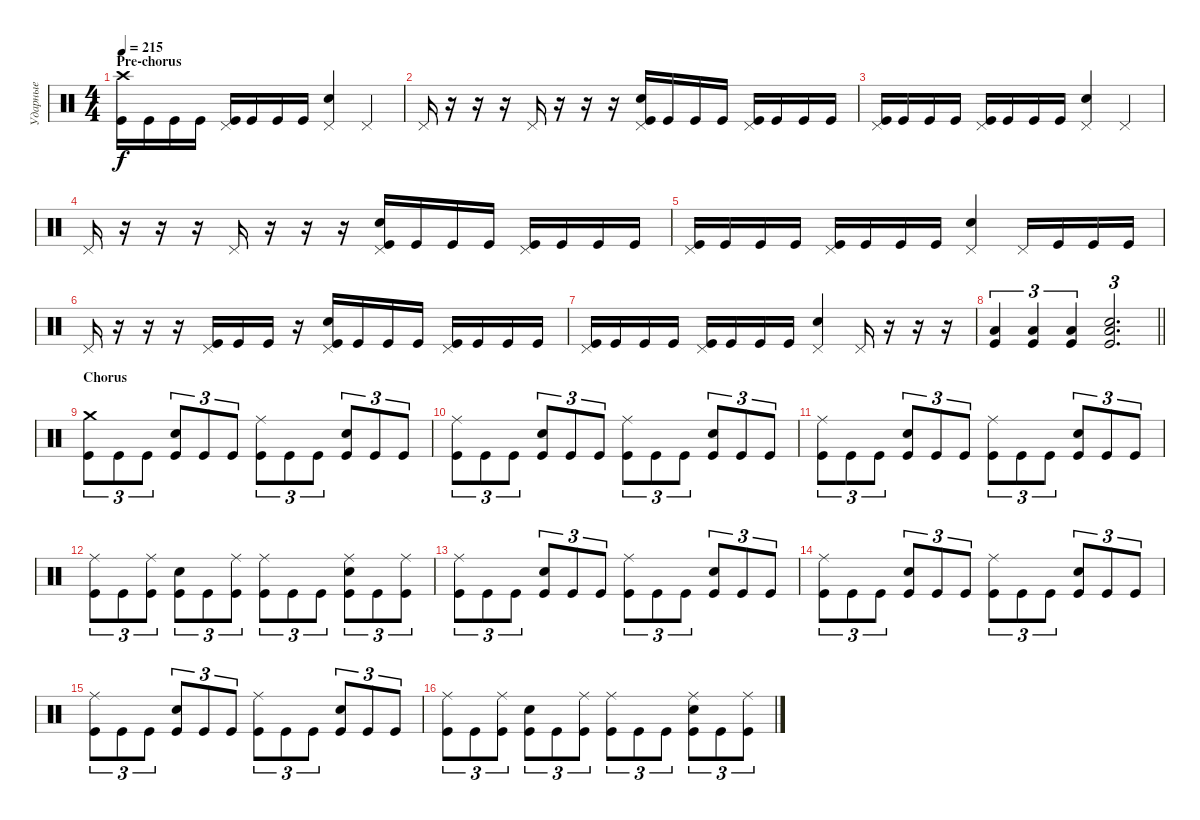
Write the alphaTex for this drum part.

\track ("Ударные" "Ударные") {instrument percussion}
\staff {score}
\articulation defaults
\ts (4 4)
\section ("" "Pre-chorus")
\tempo 215
\clef neutral
\ks c
("Crash high (hit)" "Kick (hit)").16{dy f} "Kick (hit)".16 "Kick (hit)".16 "Kick (hit)".16 ("Pedal Hi-Hat (hit)" "Kick (hit)").16 "Kick (hit)".16 "Kick (hit)".16 "Kick (hit)".16 ("Pedal Hi-Hat (hit)" "Electric Snare (hit)").4 "Pedal Hi-Hat (hit)".4 |
"Pedal Hi-Hat (hit)".16 r.16 r.16 r.16 "Pedal Hi-Hat (hit)".16 r.16 r.16 r.16 ("Pedal Hi-Hat (hit)" "Electric Snare (hit)" "Kick (hit)").16 "Kick (hit)".16 "Kick (hit)".16 "Kick (hit)".16 ("Pedal Hi-Hat (hit)" "Kick (hit)").16 "Kick (hit)".16 "Kick (hit)".16 "Kick (hit)".16 |
("Pedal Hi-Hat (hit)" "Kick (hit)").16 "Kick (hit)".16 "Kick (hit)".16 "Kick (hit)".16 ("Pedal Hi-Hat (hit)" "Kick (hit)").16 "Kick (hit)".16 "Kick (hit)".16 "Kick (hit)".16 ("Pedal Hi-Hat (hit)" "Electric Snare (hit)").4 "Pedal Hi-Hat (hit)".4 |
"Pedal Hi-Hat (hit)".16 r.16 r.16 r.16 "Pedal Hi-Hat (hit)".16 r.16 r.16 r.16 ("Pedal Hi-Hat (hit)" "Electric Snare (hit)" "Kick (hit)").16 "Kick (hit)".16 "Kick (hit)".16 "Kick (hit)".16 ("Pedal Hi-Hat (hit)" "Kick (hit)").16 "Kick (hit)".16 "Kick (hit)".16 "Kick (hit)".16 |
("Pedal Hi-Hat (hit)" "Kick (hit)").16 "Kick (hit)".16 "Kick (hit)".16 "Kick (hit)".16 ("Pedal Hi-Hat (hit)" "Kick (hit)").16 "Kick (hit)".16 "Kick (hit)".16 "Kick (hit)".16 ("Pedal Hi-Hat (hit)" "Electric Snare (hit)").4 "Pedal Hi-Hat (hit)".16 "Kick (hit)".16 "Kick (hit)".16 "Kick (hit)".16 |
"Pedal Hi-Hat (hit)".16 r.16 r.16 r.16 ("Pedal Hi-Hat (hit)" "Kick (hit)").16 "Kick (hit)".16 "Kick (hit)".16 r.16 ("Pedal Hi-Hat (hit)" "Electric Snare (hit)" "Kick (hit)").16 "Kick (hit)".16 "Kick (hit)".16 "Kick (hit)".16 ("Pedal Hi-Hat (hit)" "Kick (hit)").16 "Kick (hit)".16 "Kick (hit)".16 "Kick (hit)".16 |
("Pedal Hi-Hat (hit)" "Kick (hit)").16 "Kick (hit)".16 "Kick (hit)".16 "Kick (hit)".16 ("Pedal Hi-Hat (hit)" "Kick (hit)").16 "Kick (hit)".16 "Kick (hit)".16 "Kick (hit)".16 ("Pedal Hi-Hat (hit)" "Electric Snare (hit)").4 "Pedal Hi-Hat (hit)".16 r.16 r.16 r.16 |
\barLineRight lightlight
("Low Floor Tom (hit)" "Kick (hit)").4{tu (3 2)} ("Low Floor Tom (hit)" "Kick (hit)").4{tu (3 2)} ("Low Floor Tom (hit)" "Kick (hit)").4{tu (3 2)} ("Low Floor Tom (hit)" "Electric Snare (hit)" "Kick (hit)").2{d tu (3 2)} |
\section ("" "Chorus")
("Crash medium (hit)" "Kick (hit)").8{tu (3 2)} "Kick (hit)".8{tu (3 2)} "Kick (hit)".8{tu (3 2)} ("Electric Snare (hit)" "Kick (hit)").8{tu (3 2)} "Kick (hit)".8{tu (3 2)} "Kick (hit)".8{tu (3 2)} ("Ride (middle)" "Kick (hit)").8{tu (3 2)} "Kick (hit)".8{tu (3 2)} "Kick (hit)".8{tu (3 2)} ("Electric Snare (hit)" "Kick (hit)").8{tu (3 2)} "Kick (hit)".8{tu (3 2)} "Kick (hit)".8{tu (3 2)} |
("Ride (middle)" "Kick (hit)").8{tu (3 2)} "Kick (hit)".8{tu (3 2)} "Kick (hit)".8{tu (3 2)} ("Electric Snare (hit)" "Kick (hit)").8{tu (3 2)} "Kick (hit)".8{tu (3 2)} "Kick (hit)".8{tu (3 2)} ("Ride (middle)" "Kick (hit)").8{tu (3 2)} "Kick (hit)".8{tu (3 2)} "Kick (hit)".8{tu (3 2)} ("Electric Snare (hit)" "Kick (hit)").8{tu (3 2)} "Kick (hit)".8{tu (3 2)} "Kick (hit)".8{tu (3 2)} |
("Ride (middle)" "Kick (hit)").8{tu (3 2)} "Kick (hit)".8{tu (3 2)} "Kick (hit)".8{tu (3 2)} ("Electric Snare (hit)" "Kick (hit)").8{tu (3 2)} "Kick (hit)".8{tu (3 2)} "Kick (hit)".8{tu (3 2)} ("Ride (middle)" "Kick (hit)").8{tu (3 2)} "Kick (hit)".8{tu (3 2)} "Kick (hit)".8{tu (3 2)} ("Electric Snare (hit)" "Kick (hit)").8{tu (3 2)} "Kick (hit)".8{tu (3 2)} "Kick (hit)".8{tu (3 2)} |
("Ride (middle)" "Kick (hit)").8{tu (3 2)} "Kick (hit)".8{tu (3 2)} ("Ride (middle)" "Kick (hit)").8{tu (3 2)} ("Electric Snare (hit)" "Kick (hit)").8{tu (3 2)} "Kick (hit)".8{tu (3 2)} ("Ride (middle)" "Kick (hit)").8{tu (3 2)} ("Ride (middle)" "Kick (hit)").8{tu (3 2)} "Kick (hit)".8{tu (3 2)} "Kick (hit)".8{tu (3 2)} ("Ride (middle)" "Electric Snare (hit)" "Kick (hit)").8{tu (3 2)} "Kick (hit)".8{tu (3 2)} ("Ride (middle)" "Kick (hit)").8{tu (3 2)} |
("Ride (middle)" "Kick (hit)").8{tu (3 2)} "Kick (hit)".8{tu (3 2)} "Kick (hit)".8{tu (3 2)} ("Electric Snare (hit)" "Kick (hit)").8{tu (3 2)} "Kick (hit)".8{tu (3 2)} "Kick (hit)".8{tu (3 2)} ("Ride (middle)" "Kick (hit)").8{tu (3 2)} "Kick (hit)".8{tu (3 2)} "Kick (hit)".8{tu (3 2)} ("Electric Snare (hit)" "Kick (hit)").8{tu (3 2)} "Kick (hit)".8{tu (3 2)} "Kick (hit)".8{tu (3 2)} |
("Ride (middle)" "Kick (hit)").8{tu (3 2)} "Kick (hit)".8{tu (3 2)} "Kick (hit)".8{tu (3 2)} ("Electric Snare (hit)" "Kick (hit)").8{tu (3 2)} "Kick (hit)".8{tu (3 2)} "Kick (hit)".8{tu (3 2)} ("Ride (middle)" "Kick (hit)").8{tu (3 2)} "Kick (hit)".8{tu (3 2)} "Kick (hit)".8{tu (3 2)} ("Electric Snare (hit)" "Kick (hit)").8{tu (3 2)} "Kick (hit)".8{tu (3 2)} "Kick (hit)".8{tu (3 2)} |
("Ride (middle)" "Kick (hit)").8{tu (3 2)} "Kick (hit)".8{tu (3 2)} "Kick (hit)".8{tu (3 2)} ("Electric Snare (hit)" "Kick (hit)").8{tu (3 2)} "Kick (hit)".8{tu (3 2)} "Kick (hit)".8{tu (3 2)} ("Ride (middle)" "Kick (hit)").8{tu (3 2)} "Kick (hit)".8{tu (3 2)} "Kick (hit)".8{tu (3 2)} ("Electric Snare (hit)" "Kick (hit)").8{tu (3 2)} "Kick (hit)".8{tu (3 2)} "Kick (hit)".8{tu (3 2)} |
("Ride (middle)" "Kick (hit)").8{tu (3 2)} "Kick (hit)".8{tu (3 2)} ("Ride (middle)" "Kick (hit)").8{tu (3 2)} ("Electric Snare (hit)" "Kick (hit)").8{tu (3 2)} "Kick (hit)".8{tu (3 2)} ("Ride (middle)" "Kick (hit)").8{tu (3 2)} ("Ride (middle)" "Kick (hit)").8{tu (3 2)} "Kick (hit)".8{tu (3 2)} "Kick (hit)".8{tu (3 2)} ("Ride (middle)" "Electric Snare (hit)" "Kick (hit)").8{tu (3 2)} "Kick (hit)".8{tu (3 2)} ("Ride (middle)" "Kick (hit)").8{tu (3 2)}
